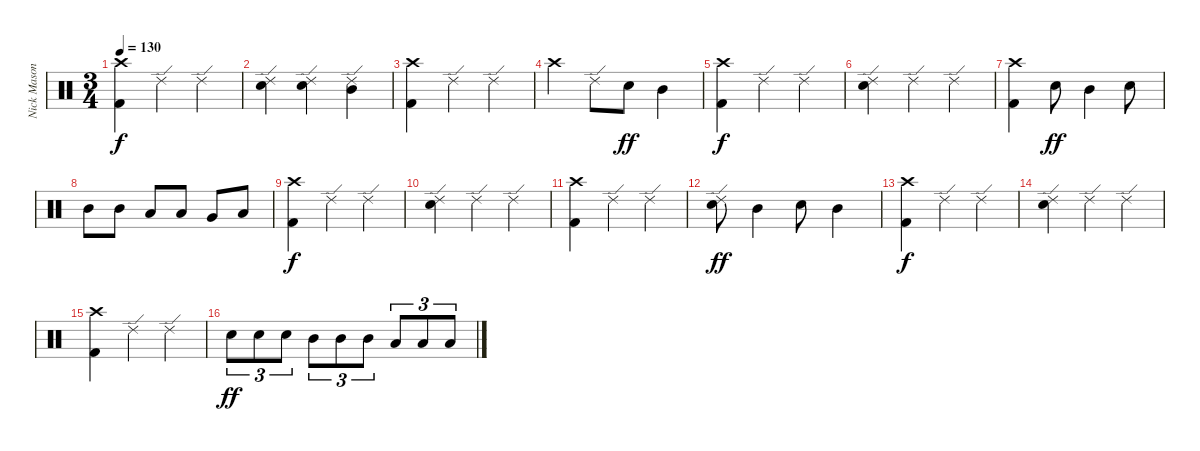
\track ("Nick Mason" "Nick Mason") {instrument percussion}
\staff {score}
\articulation defaults
\ts (3 4)
\tempo 130
\clef neutral
\ks c
("Crash high (hit)" "Kick (hit) 2").4{dy f} "Ride (edge) 2".4 "Ride (edge) 2".4 |
("Ride (edge) 2" "Snare (hit) 2").4 ("Ride (edge) 2" "Snare (hit) 2").4 ("Ride (edge) 2" "Mid Tom (hit)").4 |
("Crash high (hit)" "Kick (hit) 2").4 "Ride (edge) 2".4 "Ride (edge) 2".4 |
"Crash high (hit)".4 "Ride (edge) 2".8 "Snare (hit) 2".8{dy ff} "Mid Tom (hit)".4 |
("Crash high (hit)" "Kick (hit) 2").4{dy f} "Ride (edge) 2".4 "Ride (edge) 2".4 |
("Ride (edge) 2" "Snare (hit) 2").4 "Ride (edge) 2".4 "Ride (edge) 2".4 |
("Crash high (hit)" "Kick (hit) 2").4 "Snare (hit) 2".8{dy ff} "Mid Tom (hit)".4 "Snare (hit) 2".8 |
"Mid Tom (hit)".8 "Mid Tom (hit)".8 "Low Tom (hit)".8 "Low Tom (hit)".8 "Very Low Tom (hit)".8 "Low Floor Tom (hit)".8 |
("Crash high (hit)" "Kick (hit) 2").4{dy f} "Ride (edge) 2".4 "Ride (edge) 2".4 |
("Ride (edge) 2" "Snare (hit) 2").4 "Ride (edge) 2".4 "Ride (edge) 2".4 |
("Crash high (hit)" "Kick (hit) 2").4 "Ride (edge) 2".4 "Ride (edge) 2".4 |
("Ride (edge) 2" "Snare (hit) 2").8{dy ff} "Mid Tom (hit)".4 "Snare (hit) 2".8 "Mid Tom (hit)".4 |
("Crash high (hit)" "Kick (hit) 2").4{dy f} "Ride (edge) 2".4 "Ride (edge) 2".4 |
("Ride (edge) 2" "Snare (hit) 2").4 "Ride (edge) 2".4 "Ride (edge) 2".4 |
("Crash high (hit)" "Kick (hit) 2").4 "Ride (edge) 2".4 "Ride (edge) 2".4 |
"Snare (hit) 2".8{tu (3 2) dy ff} "Snare (hit) 2".8{tu (3 2)} "Snare (hit) 2".8{tu (3 2)} "Mid Tom (hit)".8{tu (3 2)} "Mid Tom (hit)".8{tu (3 2)} "Mid Tom (hit)".8{tu (3 2)} "Low Tom (hit)".8{tu (3 2)} "Low Tom (hit)".8{tu (3 2)} "Low Tom (hit)".8{tu (3 2)}
